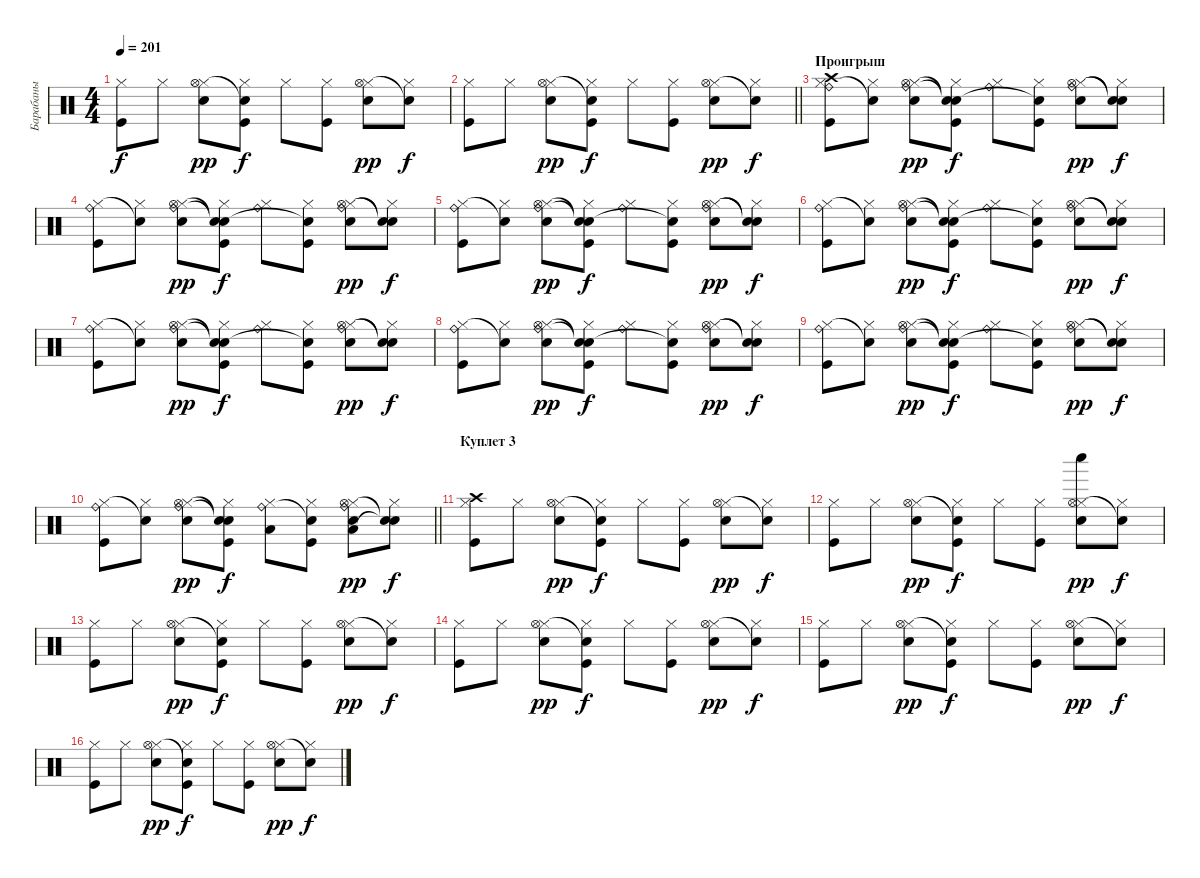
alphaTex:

\track ("Барабаны" "Барабаны") {instrument percussion}
\staff {score}
\articulation defaults
\ts (4 4)
\tempo 201
\clef neutral
\ks c
("Kick (hit)" "Hi-Hat (closed)").8{dy f} "Hi-Hat (closed)".8 ("Snare (hit) 2" "Hi-Hat (closed)" "Hi-Hat (open)").8{dy pp} ("Kick (hit)" "Hi-Hat (closed)" "Snare (hit)"{t}).8{dy f} "Hi-Hat (closed)".8 ("Kick (hit)" "Hi-Hat (closed)").8 ("Snare (hit) 2" "Hi-Hat (closed)" "Hi-Hat (open)").8{dy pp} ("Hi-Hat (closed)" "Snare (hit)"{t}).8{dy f} |
\barLineRight lightlight
("Kick (hit)" "Hi-Hat (closed)").8 "Hi-Hat (closed)".8 ("Snare (hit) 2" "Hi-Hat (closed)" "Hi-Hat (open)").8{dy pp} ("Kick (hit)" "Hi-Hat (closed)" "Snare (hit)"{t}).8{dy f} "Hi-Hat (closed)".8 ("Kick (hit)" "Hi-Hat (closed)").8 ("Snare (hit) 2" "Hi-Hat (closed)" "Hi-Hat (open)").8{dy pp} ("Hi-Hat (closed)" "Snare (hit)"{t}).8{dy f} |
\section ("" "Проигрыш")
("Kick (hit)" "Hi-Hat (closed)" "Crash high (hit)" "Ride (bell)").8 ("Hi-Hat (closed)" "Snare (hit)"{t}).8 ("Snare (hit) 2" "Hi-Hat (closed)" "Hi-Hat (open)" "Ride (bell)").8{dy pp} ("Kick (hit)" "Hi-Hat (closed)" "Snare (hit)"{t} "Snare (hit)"{t}).8{dy f} ("Hi-Hat (closed)" "Ride (bell)").8 ("Kick (hit)" "Hi-Hat (closed)" "Snare (hit)"{t}).8 ("Snare (hit) 2" "Hi-Hat (closed)" "Hi-Hat (open)" "Ride (bell)").8{dy pp} ("Hi-Hat (closed)" "Snare (hit)"{t} "Snare (hit)"{t}).8{dy f} |
("Kick (hit)" "Hi-Hat (closed)" "Ride (bell)").8 ("Hi-Hat (closed)" "Snare (hit)"{t}).8 ("Snare (hit) 2" "Hi-Hat (closed)" "Hi-Hat (open)" "Ride (bell)").8{dy pp} ("Kick (hit)" "Hi-Hat (closed)" "Snare (hit)"{t} "Snare (hit)"{t}).8{dy f} ("Hi-Hat (closed)" "Ride (bell)").8 ("Kick (hit)" "Hi-Hat (closed)" "Snare (hit)"{t}).8 ("Snare (hit) 2" "Hi-Hat (closed)" "Hi-Hat (open)" "Ride (bell)").8{dy pp} ("Hi-Hat (closed)" "Snare (hit)"{t} "Snare (hit)"{t}).8{dy f} |
("Kick (hit)" "Hi-Hat (closed)" "Ride (bell)").8 ("Hi-Hat (closed)" "Snare (hit)"{t}).8 ("Snare (hit) 2" "Hi-Hat (closed)" "Hi-Hat (open)" "Ride (bell)").8{dy pp} ("Kick (hit)" "Hi-Hat (closed)" "Snare (hit)"{t} "Snare (hit)"{t}).8{dy f} ("Hi-Hat (closed)" "Ride (bell)").8 ("Kick (hit)" "Hi-Hat (closed)" "Snare (hit)"{t}).8 ("Snare (hit) 2" "Hi-Hat (closed)" "Hi-Hat (open)" "Ride (bell)").8{dy pp} ("Hi-Hat (closed)" "Snare (hit)"{t} "Snare (hit)"{t}).8{dy f} |
("Kick (hit)" "Hi-Hat (closed)" "Ride (bell)").8 ("Hi-Hat (closed)" "Snare (hit)"{t}).8 ("Snare (hit) 2" "Hi-Hat (closed)" "Hi-Hat (open)" "Ride (bell)").8{dy pp} ("Kick (hit)" "Hi-Hat (closed)" "Snare (hit)"{t} "Snare (hit)"{t}).8{dy f} ("Hi-Hat (closed)" "Ride (bell)").8 ("Kick (hit)" "Hi-Hat (closed)" "Snare (hit)"{t}).8 ("Snare (hit) 2" "Hi-Hat (closed)" "Hi-Hat (open)" "Ride (bell)").8{dy pp} ("Hi-Hat (closed)" "Snare (hit)"{t} "Snare (hit)"{t}).8{dy f} |
("Kick (hit)" "Hi-Hat (closed)" "Ride (bell)").8 ("Hi-Hat (closed)" "Snare (hit)"{t}).8 ("Snare (hit) 2" "Hi-Hat (closed)" "Hi-Hat (open)" "Ride (bell)").8{dy pp} ("Kick (hit)" "Hi-Hat (closed)" "Snare (hit)"{t} "Snare (hit)"{t}).8{dy f} ("Hi-Hat (closed)" "Ride (bell)").8 ("Kick (hit)" "Hi-Hat (closed)" "Snare (hit)"{t}).8 ("Snare (hit) 2" "Hi-Hat (closed)" "Hi-Hat (open)" "Ride (bell)").8{dy pp} ("Hi-Hat (closed)" "Snare (hit)"{t} "Snare (hit)"{t}).8{dy f} |
("Kick (hit)" "Hi-Hat (closed)" "Ride (bell)").8 ("Hi-Hat (closed)" "Snare (hit)"{t}).8 ("Snare (hit) 2" "Hi-Hat (closed)" "Hi-Hat (open)" "Ride (bell)").8{dy pp} ("Kick (hit)" "Hi-Hat (closed)" "Snare (hit)"{t} "Snare (hit)"{t}).8{dy f} ("Hi-Hat (closed)" "Ride (bell)").8 ("Kick (hit)" "Hi-Hat (closed)" "Snare (hit)"{t}).8 ("Snare (hit) 2" "Hi-Hat (closed)" "Hi-Hat (open)" "Ride (bell)").8{dy pp} ("Hi-Hat (closed)" "Snare (hit)"{t} "Snare (hit)"{t}).8{dy f} |
("Kick (hit)" "Hi-Hat (closed)" "Ride (bell)").8 ("Hi-Hat (closed)" "Snare (hit)"{t}).8 ("Snare (hit) 2" "Hi-Hat (closed)" "Hi-Hat (open)" "Ride (bell)").8{dy pp} ("Kick (hit)" "Hi-Hat (closed)" "Snare (hit)"{t} "Snare (hit)"{t}).8{dy f} ("Hi-Hat (closed)" "Ride (bell)").8 ("Kick (hit)" "Hi-Hat (closed)" "Snare (hit)"{t}).8 ("Snare (hit) 2" "Hi-Hat (closed)" "Hi-Hat (open)" "Ride (bell)").8{dy pp} ("Hi-Hat (closed)" "Snare (hit)"{t} "Snare (hit)"{t}).8{dy f} |
\barLineRight lightlight
("Kick (hit)" "Hi-Hat (closed)" "Ride (bell)").8 ("Hi-Hat (closed)" "Snare (hit)"{t}).8 ("Snare (hit) 2" "Hi-Hat (closed)" "Hi-Hat (open)" "Ride (bell)").8{dy pp} ("Kick (hit)" "Hi-Hat (closed)" "Snare (hit)"{t} "Snare (hit)"{t}).8{dy f} ("Hi-Hat (closed)" "Low Floor Tom (hit)" "Ride (bell)").8 ("Kick (hit)" "Hi-Hat (closed)" "Snare (hit)"{t}).8 ("Snare (hit) 2" "Hi-Hat (closed)" "Low Floor Tom (hit)" "Hi-Hat (open)" "Ride (bell)").8{dy pp} ("Hi-Hat (closed)" "Snare (hit)"{t} "Snare (hit)"{t}).8{dy f} |
\section ("" "Куплет 3")
("Kick (hit)" "Hi-Hat (closed)" "Crash high (hit)").8 "Hi-Hat (closed)".8 ("Snare (hit) 2" "Hi-Hat (closed)" "Hi-Hat (open)").8{dy pp} ("Kick (hit)" "Hi-Hat (closed)" "Snare (hit)"{t}).8{dy f} "Hi-Hat (closed)".8 ("Kick (hit)" "Hi-Hat (closed)").8 ("Snare (hit) 2" "Hi-Hat (closed)" "Hi-Hat (open)").8{dy pp} ("Hi-Hat (closed)" "Snare (hit)"{t}).8{dy f} |
("Kick (hit)" "Hi-Hat (closed)").8 "Hi-Hat (closed)".8 ("Snare (hit) 2" "Hi-Hat (closed)" "Hi-Hat (open)").8{dy pp} ("Kick (hit)" "Hi-Hat (closed)" "Snare (hit)"{t}).8{dy f} "Hi-Hat (closed)".8 ("Kick (hit)" "Hi-Hat (closed)").8 ("Snare (hit) 2" "Hi-Hat (closed)" "Hi-Hat (open)" "Whistle low (hit)").8{dy pp} ("Hi-Hat (closed)" "Snare (hit)"{t}).8{dy f} |
("Kick (hit)" "Hi-Hat (closed)").8 "Hi-Hat (closed)".8 ("Snare (hit) 2" "Hi-Hat (closed)" "Hi-Hat (open)").8{dy pp} ("Kick (hit)" "Hi-Hat (closed)" "Snare (hit)"{t}).8{dy f} "Hi-Hat (closed)".8 ("Kick (hit)" "Hi-Hat (closed)").8 ("Snare (hit) 2" "Hi-Hat (closed)" "Hi-Hat (open)").8{dy pp} ("Hi-Hat (closed)" "Snare (hit)"{t}).8{dy f} |
("Kick (hit)" "Hi-Hat (closed)").8 "Hi-Hat (closed)".8 ("Snare (hit) 2" "Hi-Hat (closed)" "Hi-Hat (open)").8{dy pp} ("Kick (hit)" "Hi-Hat (closed)" "Snare (hit)"{t}).8{dy f} "Hi-Hat (closed)".8 ("Kick (hit)" "Hi-Hat (closed)").8 ("Snare (hit) 2" "Hi-Hat (closed)" "Hi-Hat (open)").8{dy pp} ("Hi-Hat (closed)" "Snare (hit)"{t}).8{dy f} |
("Kick (hit)" "Hi-Hat (closed)").8 "Hi-Hat (closed)".8 ("Snare (hit) 2" "Hi-Hat (closed)" "Hi-Hat (open)").8{dy pp} ("Kick (hit)" "Hi-Hat (closed)" "Snare (hit)"{t}).8{dy f} "Hi-Hat (closed)".8 ("Kick (hit)" "Hi-Hat (closed)").8 ("Snare (hit) 2" "Hi-Hat (closed)" "Hi-Hat (open)").8{dy pp} ("Hi-Hat (closed)" "Snare (hit)"{t}).8{dy f} |
("Kick (hit)" "Hi-Hat (closed)").8 "Hi-Hat (closed)".8 ("Snare (hit) 2" "Hi-Hat (closed)" "Hi-Hat (open)").8{dy pp} ("Kick (hit)" "Hi-Hat (closed)" "Snare (hit)"{t}).8{dy f} "Hi-Hat (closed)".8 ("Kick (hit)" "Hi-Hat (closed)").8 ("Snare (hit) 2" "Hi-Hat (closed)" "Hi-Hat (open)").8{dy pp} ("Hi-Hat (closed)" "Snare (hit)"{t}).8{dy f}
